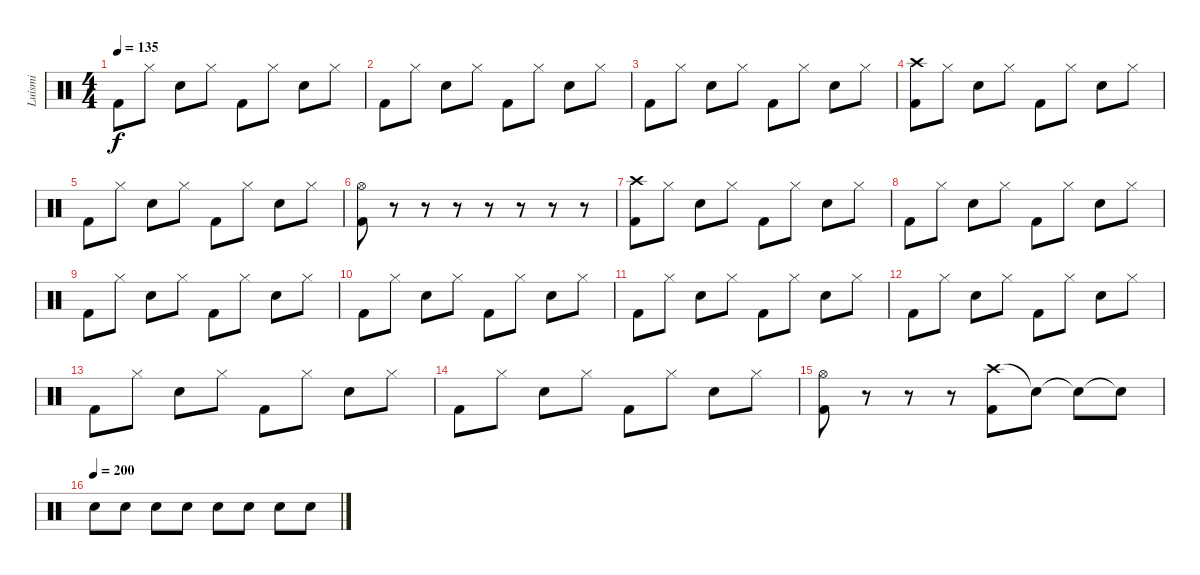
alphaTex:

\track ("Luismi" "Luismi") {instrument percussion}
\staff {score}
\articulation defaults
\ts (4 4)
\tempo 135
\clef neutral
\ks c "Kick (hit) 2".8{dy f} "Hi-Hat (closed)".8 "Snare (hit) 2".8 "Hi-Hat (closed)".8 "Kick (hit) 2".8 "Hi-Hat (closed)".8 "Snare (hit) 2".8 "Hi-Hat (closed)".8
|
"Kick (hit) 2".8 "Hi-Hat (closed)".8 "Snare (hit) 2".8 "Hi-Hat (closed)".8 "Kick (hit) 2".8 "Hi-Hat (closed)".8 "Snare (hit) 2".8 "Hi-Hat (closed)".8 |
"Kick (hit) 2".8 "Hi-Hat (closed)".8 "Snare (hit) 2".8 "Hi-Hat (closed)".8 "Kick (hit) 2".8 "Hi-Hat (closed)".8 "Snare (hit) 2".8 "Hi-Hat (closed)".8 |
("Crash high (hit)" "Kick (hit) 2").8 "Hi-Hat (closed)".8 "Snare (hit) 2".8 "Hi-Hat (closed)".8 "Kick (hit) 2".8 "Hi-Hat (closed)".8 "Snare (hit) 2".8 "Hi-Hat (closed)".8 |
"Kick (hit) 2".8 "Hi-Hat (closed)".8 "Snare (hit) 2".8 "Hi-Hat (closed)".8 "Kick (hit) 2".8 "Hi-Hat (closed)".8 "Snare (hit) 2".8 "Hi-Hat (closed)".8 |
("Hi-Hat (open)" "Kick (hit) 2").8 r.8 r.8 r.8 r.8 r.8 r.8 r.8 |
("Crash high (hit)" "Kick (hit) 2").8 "Hi-Hat (closed)".8 "Snare (hit) 2".8 "Hi-Hat (closed)".8 "Kick (hit) 2".8 "Hi-Hat (closed)".8 "Snare (hit) 2".8 "Hi-Hat (closed)".8 |
"Kick (hit) 2".8 "Hi-Hat (closed)".8 "Snare (hit) 2".8 "Hi-Hat (closed)".8 "Kick (hit) 2".8 "Hi-Hat (closed)".8 "Snare (hit) 2".8 "Hi-Hat (closed)".8 |
"Kick (hit) 2".8 "Hi-Hat (closed)".8 "Snare (hit) 2".8 "Hi-Hat (closed)".8 "Kick (hit) 2".8 "Hi-Hat (closed)".8 "Snare (hit) 2".8 "Hi-Hat (closed)".8 |
"Kick (hit) 2".8 "Hi-Hat (closed)".8 "Snare (hit) 2".8 "Hi-Hat (closed)".8 "Kick (hit) 2".8 "Hi-Hat (closed)".8 "Snare (hit) 2".8 "Hi-Hat (closed)".8 |
"Kick (hit) 2".8 "Hi-Hat (closed)".8 "Snare (hit) 2".8 "Hi-Hat (closed)".8 "Kick (hit) 2".8 "Hi-Hat (closed)".8 "Snare (hit) 2".8 "Hi-Hat (closed)".8 |
"Kick (hit) 2".8 "Hi-Hat (closed)".8 "Snare (hit) 2".8 "Hi-Hat (closed)".8 "Kick (hit) 2".8 "Hi-Hat (closed)".8 "Snare (hit) 2".8 "Hi-Hat (closed)".8 |
"Kick (hit) 2".8 "Hi-Hat (closed)".8 "Snare (hit) 2".8 "Hi-Hat (closed)".8 "Kick (hit) 2".8 "Hi-Hat (closed)".8 "Snare (hit) 2".8 "Hi-Hat (closed)".8 |
"Kick (hit) 2".8 "Hi-Hat (closed)".8 "Snare (hit) 2".8 "Hi-Hat (closed)".8 "Kick (hit) 2".8 "Hi-Hat (closed)".8 "Snare (hit) 2".8 "Hi-Hat (closed)".8 |
("Hi-Hat (open)" "Kick (hit) 2").8 r.8 r.8 r.8 ("Crash high (hit)" "Kick (hit) 2").8 "Snare (hit)"{t}.8 "Snare (hit)"{t}.8 "Snare (hit)"{t}.8 |
\tempo (200)
"Snare (hit) 2".8 "Snare (hit) 2".8 "Snare (hit) 2".8 "Snare (hit) 2".8 "Snare (hit) 2".8 "Snare (hit) 2".8 "Snare (hit) 2".8 "Snare (hit) 2".8
